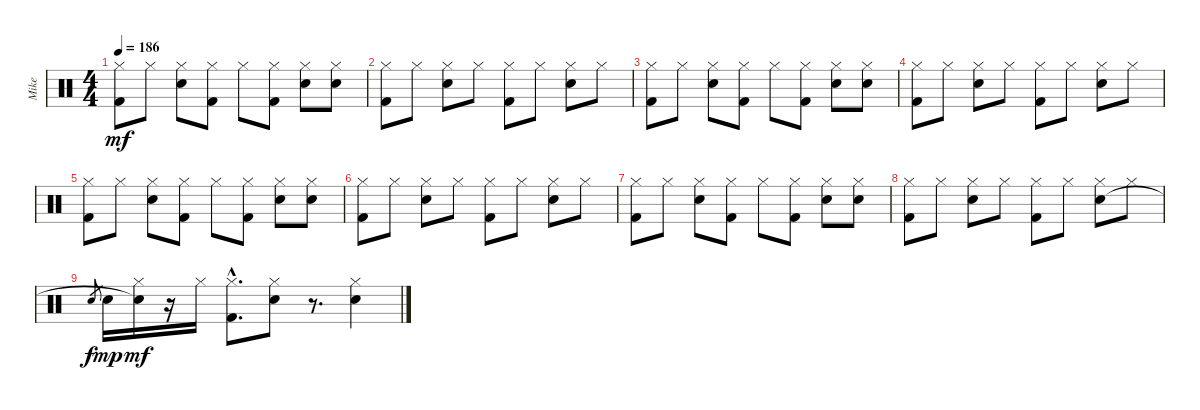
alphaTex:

\track ("Mike" "Mike") {instrument percussion}
\staff {score}
\articulation defaults
\ts (4 4)
\tempo 186
\clef neutral
\ks c
("Hi-Hat (closed)" "Kick (hit) 2").8{dy mf} "Hi-Hat (closed)".8 ("Hi-Hat (closed)" "Snare (hit) 2").8 ("Hi-Hat (closed)" "Kick (hit) 2").8 "Hi-Hat (closed)".8 ("Hi-Hat (closed)" "Kick (hit) 2").8 ("Hi-Hat (closed)" "Snare (hit) 2").8 ("Hi-Hat (closed)" "Snare (hit) 2").8 |
("Hi-Hat (closed)" "Kick (hit) 2").8 "Hi-Hat (closed)".8 ("Hi-Hat (closed)" "Snare (hit) 2").8 "Hi-Hat (closed)".8 ("Hi-Hat (closed)" "Kick (hit) 2").8 "Hi-Hat (closed)".8 ("Hi-Hat (closed)" "Snare (hit) 2").8 "Hi-Hat (closed)".8 |
("Hi-Hat (closed)" "Kick (hit) 2").8 "Hi-Hat (closed)".8 ("Hi-Hat (closed)" "Snare (hit) 2").8 ("Hi-Hat (closed)" "Kick (hit) 2").8 "Hi-Hat (closed)".8 ("Hi-Hat (closed)" "Kick (hit) 2").8 ("Hi-Hat (closed)" "Snare (hit) 2").8 ("Hi-Hat (closed)" "Snare (hit) 2").8 |
("Hi-Hat (closed)" "Kick (hit) 2").8 "Hi-Hat (closed)".8 ("Hi-Hat (closed)" "Snare (hit) 2").8 "Hi-Hat (closed)".8 ("Hi-Hat (closed)" "Kick (hit) 2").8 "Hi-Hat (closed)".8 ("Hi-Hat (closed)" "Snare (hit) 2").8 "Hi-Hat (closed)".8 |
("Hi-Hat (closed)" "Kick (hit) 2").8 "Hi-Hat (closed)".8 ("Hi-Hat (closed)" "Snare (hit) 2").8 ("Hi-Hat (closed)" "Kick (hit) 2").8 "Hi-Hat (closed)".8 ("Hi-Hat (closed)" "Kick (hit) 2").8 ("Hi-Hat (closed)" "Snare (hit) 2").8 ("Hi-Hat (closed)" "Snare (hit) 2").8 |
("Hi-Hat (closed)" "Kick (hit) 2").8 "Hi-Hat (closed)".8 ("Hi-Hat (closed)" "Snare (hit) 2").8 "Hi-Hat (closed)".8 ("Hi-Hat (closed)" "Kick (hit) 2").8 "Hi-Hat (closed)".8 ("Hi-Hat (closed)" "Snare (hit) 2").8 "Hi-Hat (closed)".8 |
("Hi-Hat (closed)" "Kick (hit) 2").8 "Hi-Hat (closed)".8 ("Hi-Hat (closed)" "Snare (hit) 2").8 ("Hi-Hat (closed)" "Kick (hit) 2").8 "Hi-Hat (closed)".8 ("Hi-Hat (closed)" "Kick (hit) 2").8 ("Hi-Hat (closed)" "Snare (hit) 2").8 ("Hi-Hat (closed)" "Snare (hit) 2").8 |
("Hi-Hat (closed)" "Kick (hit) 2").8 "Hi-Hat (closed)".8 ("Hi-Hat (closed)" "Snare (hit) 2").8 "Hi-Hat (closed)".8 ("Hi-Hat (closed)" "Kick (hit) 2").8 "Hi-Hat (closed)".8 ("Hi-Hat (closed)" "Snare (hit) 2").8 "Hi-Hat (closed)".8 |
"Snare (hit) 2".8{gr dy f} "Snare (hit) 2".16{dy mp} ("Hi-Hat (closed)" "Snare (hit) 2"{t}).16{dy mf} r.16 "Hi-Hat (closed)".16 ("Hi-Hat (closed)"{hac} "Kick (hit) 2"{hac}).8{d} ("Hi-Hat (closed)" "Snare (hit) 2").8 r.8{d} ("Hi-Hat (closed)" "Snare (hit) 2").4
